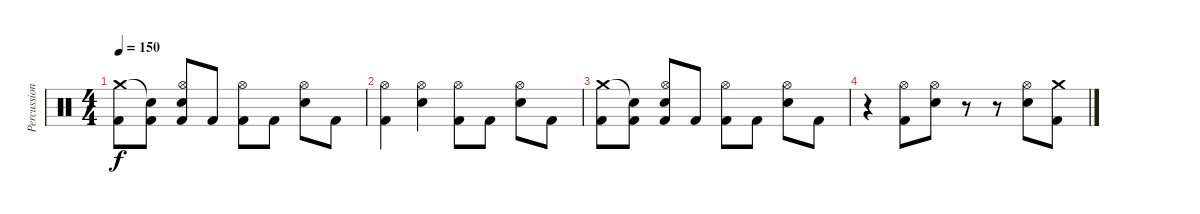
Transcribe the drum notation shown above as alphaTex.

\track ("Percussion" "Percussion") {instrument percussion}
\staff {score}
\articulation defaults
\ts (4 4)
\tempo 150
\clef neutral
\ks c
("Crash medium (hit)" "Kick (hit) 2").8{dy f} ("Snare (hit)"{t} "Kick (hit) 2").8 ("Hi-Hat (open)" "Electric Snare (hit)" "Kick (hit) 2").8 "Kick (hit) 2".8 ("Hi-Hat (open)" "Kick (hit) 2").8 "Kick (hit) 2".8 ("Hi-Hat (open)" "Electric Snare (hit)").8 "Kick (hit) 2".8 |
("Hi-Hat (open)" "Kick (hit) 2").4 ("Hi-Hat (open)" "Electric Snare (hit)").4 ("Hi-Hat (open)" "Kick (hit) 2").8 "Kick (hit) 2".8 ("Hi-Hat (open)" "Electric Snare (hit)").8 "Kick (hit) 2".8 |
("Crash medium (hit)" "Kick (hit) 2").8 ("Snare (hit)"{t} "Kick (hit) 2").8 ("Hi-Hat (open)" "Electric Snare (hit)" "Kick (hit) 2").8 "Kick (hit) 2".8 ("Hi-Hat (open)" "Kick (hit) 2").8 "Kick (hit) 2".8 ("Hi-Hat (open)" "Electric Snare (hit)").8 "Kick (hit) 2".8 |
r.4 ("Hi-Hat (open)" "Kick (hit) 2").8 ("Hi-Hat (open)" "Electric Snare (hit)").8 r.8 r.8 ("Hi-Hat (open)" "Electric Snare (hit)").8 ("Crash medium (hit)" "Kick (hit) 2").8
